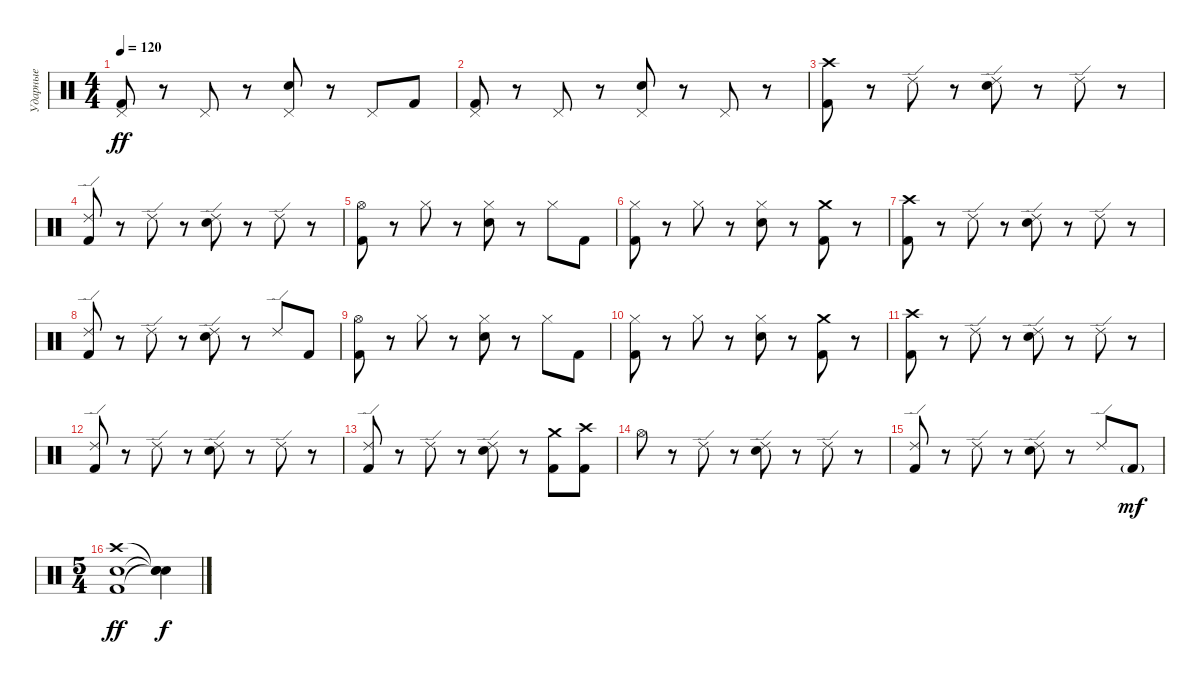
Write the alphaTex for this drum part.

\track ("Ударные" "Ударные") {instrument percussion}
\staff {score}
\articulation defaults
\ts (4 4)
\tempo 120
\clef neutral
\ks c
("Pedal Hi-Hat (hit)" "Kick (hit) 2").8{dy ff} r.8 "Pedal Hi-Hat (hit)".8 r.8 ("Pedal Hi-Hat (hit)" "Snare (hit) 2").8 r.8 "Pedal Hi-Hat (hit)".8 "Kick (hit) 2".8 |
("Pedal Hi-Hat (hit)" "Kick (hit) 2").8 r.8 "Pedal Hi-Hat (hit)".8 r.8 ("Pedal Hi-Hat (hit)" "Snare (hit) 2").8 r.8 "Pedal Hi-Hat (hit)".8 r.8 |
("Crash high (hit)" "Kick (hit) 2").8 r.8 "Ride (edge) 2".8 r.8 ("Ride (edge) 2" "Snare (hit) 2").8 r.8 "Ride (edge) 2".8 r.8 |
("Ride (edge) 2" "Kick (hit) 2").8 r.8 "Ride (edge) 2".8 r.8 ("Ride (edge) 2" "Snare (hit) 2").8 r.8 "Ride (edge) 2".8 r.8 |
("Hi-Hat (open)" "Kick (hit) 2").8 r.8 "Hi-Hat (closed)".8 r.8 ("Hi-Hat (closed)" "Snare (hit) 2").8 r.8 "Hi-Hat (closed)".8 "Kick (hit) 2".8 |
("Hi-Hat (closed)" "Kick (hit) 2").8 r.8 "Hi-Hat (closed)".8 r.8 ("Hi-Hat (closed)" "Snare (hit) 2").8 r.8 ("Crash medium (hit)" "Kick (hit) 2").8 r.8 |
("Crash high (hit)" "Kick (hit) 2").8 r.8 "Ride (edge) 2".8 r.8 ("Ride (edge) 2" "Snare (hit) 2").8 r.8 "Ride (edge) 2".8 r.8 |
("Ride (edge) 2" "Kick (hit) 2").8 r.8 "Ride (edge) 2".8 r.8 ("Ride (edge) 2" "Snare (hit) 2").8 r.8 "Ride (edge) 2".8 "Kick (hit) 2".8 |
("Hi-Hat (open)" "Kick (hit) 2").8 r.8 "Hi-Hat (closed)".8 r.8 ("Hi-Hat (closed)" "Snare (hit) 2").8 r.8 "Hi-Hat (closed)".8 "Kick (hit) 2".8 |
("Hi-Hat (closed)" "Kick (hit) 2").8 r.8 "Hi-Hat (closed)".8 r.8 ("Hi-Hat (closed)" "Snare (hit) 2").8 r.8 ("Crash medium (hit)" "Kick (hit) 2").8 r.8 |
("Crash high (hit)" "Kick (hit) 2").8 r.8 "Ride (edge) 2".8 r.8 ("Ride (edge) 2" "Snare (hit) 2").8 r.8 "Ride (edge) 2".8 r.8 |
("Ride (edge) 2" "Kick (hit) 2").8 r.8 "Ride (edge) 2".8 r.8 ("Ride (edge) 2" "Snare (hit) 2").8 r.8 "Ride (edge) 2".8 r.8 |
("Ride (edge) 2" "Kick (hit) 2").8 r.8 "Ride (edge) 2".8 r.8 ("Ride (edge) 2" "Snare (hit) 2").8 r.8 ("Crash medium (hit)" "Kick (hit) 2").8 ("Crash high (hit)" "Kick (hit) 2").8 |
"Hi-Hat (open)".8 r.8 "Ride (edge) 2".8 r.8 ("Ride (edge) 2" "Snare (hit) 2").8 r.8 "Ride (edge) 2".8 r.8 |
("Ride (edge) 2" "Kick (hit) 2").8 r.8 "Ride (edge) 2".8 r.8 ("Ride (edge) 2" "Snare (hit) 2").8 r.8 "Ride (edge) 2".8 "Kick (hit) 2"{g}.8{dy mf} |
\ts (5 4)
("Crash high (hit)" "Snare (hit) 2" "Kick (hit) 2").1{dy ff} ("Snare (hit)"{t} "Snare (hit)"{t} "Snare (hit)"{t}).4{dy f}
